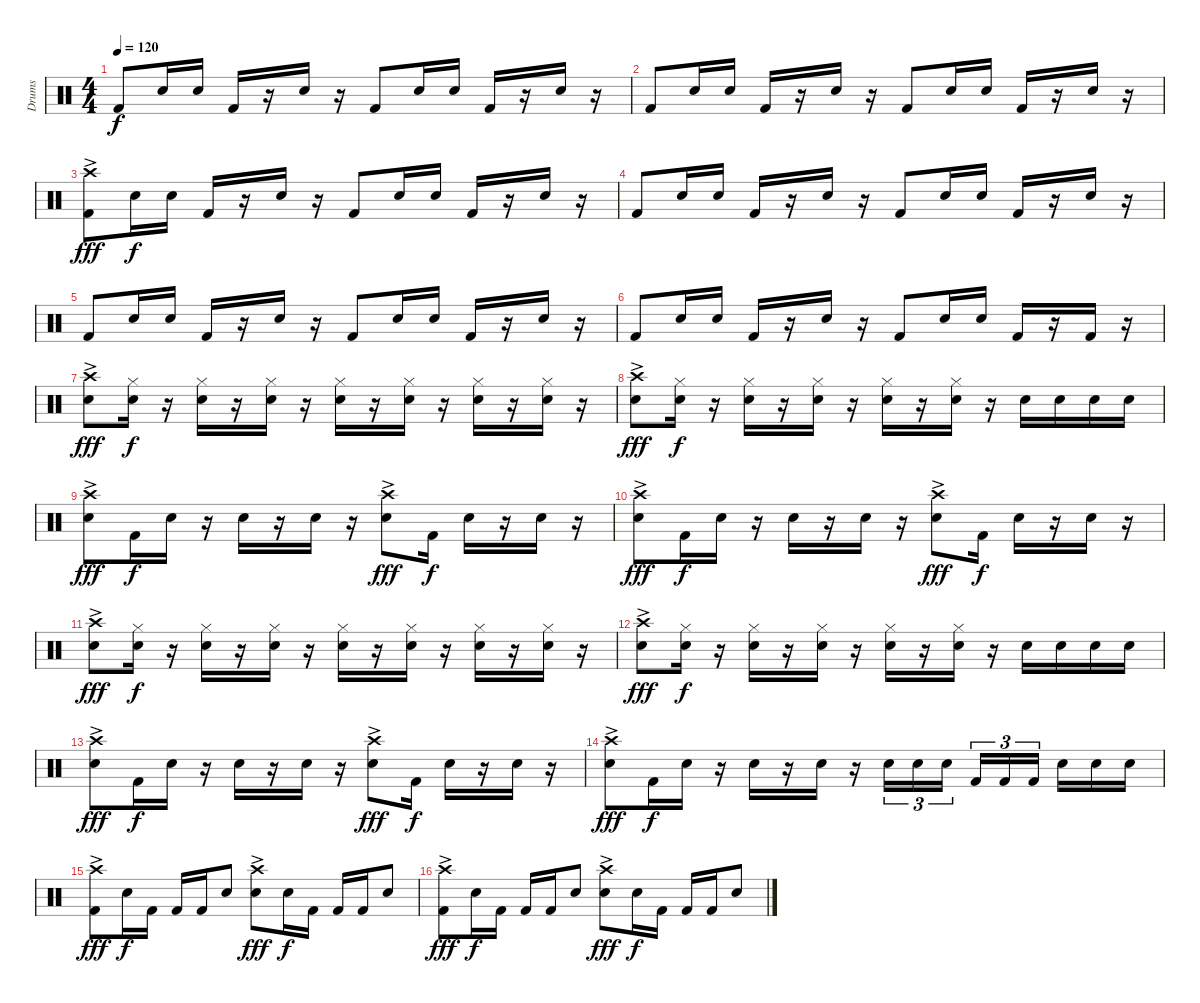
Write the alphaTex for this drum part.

\track ("Drums" "Drums") {instrument percussion}
\staff {score}
\articulation defaults
\ts (4 4)
\tempo 120
\clef neutral
\ks c "Kick (hit) 2".8{dy f} "Snare (hit) 2".16 "Snare (hit) 2".16 "Kick (hit) 2".16
r.16 "Snare (hit) 2".16 r.16 "Kick (hit) 2".8 "Snare (hit) 2".16 "Snare (hit) 2".16 "Kick (hit) 2".16 r.16 "Snare (hit) 2".16 r.16 |
"Kick (hit) 2".8 "Snare (hit) 2".16 "Snare (hit) 2".16 "Kick (hit) 2".16 r.16 "Snare (hit) 2".16 r.16 "Kick (hit) 2".8 "Snare (hit) 2".16 "Snare (hit) 2".16 "Kick (hit) 2".16 r.16 "Snare (hit) 2".16 r.16 |
("Crash high (hit)"{ac} "Kick (hit) 2").8{dy fff} "Snare (hit) 2".16{dy f} "Snare (hit) 2".16 "Kick (hit) 2".16 r.16 "Snare (hit) 2".16 r.16 "Kick (hit) 2".8 "Snare (hit) 2".16 "Snare (hit) 2".16 "Kick (hit) 2".16 r.16 "Snare (hit) 2".16 r.16 |
"Kick (hit) 2".8 "Snare (hit) 2".16 "Snare (hit) 2".16 "Kick (hit) 2".16 r.16 "Snare (hit) 2".16 r.16 "Kick (hit) 2".8 "Snare (hit) 2".16 "Snare (hit) 2".16 "Kick (hit) 2".16 r.16 "Snare (hit) 2".16 r.16 |
"Kick (hit) 2".8 "Snare (hit) 2".16 "Snare (hit) 2".16 "Kick (hit) 2".16 r.16 "Snare (hit) 2".16 r.16 "Kick (hit) 2".8 "Snare (hit) 2".16 "Snare (hit) 2".16 "Kick (hit) 2".16 r.16 "Snare (hit) 2".16 r.16 |
"Kick (hit) 2".8 "Snare (hit) 2".16 "Snare (hit) 2".16 "Kick (hit) 2".16 r.16 "Snare (hit) 2".16 r.16 "Kick (hit) 2".8 "Snare (hit) 2".16 "Snare (hit) 2".16 "Kick (hit) 2".16 r.16 "Kick (hit) 2".16 r.16 |
("Crash high (hit)"{ac} "Snare (hit) 2").8{dy fff} ("Hi-Hat (closed)" "Snare (hit) 2").16{dy f} r.16 ("Hi-Hat (closed)" "Snare (hit) 2").16 r.16 ("Hi-Hat (closed)" "Snare (hit) 2").16 r.16 ("Hi-Hat (closed)" "Snare (hit) 2").16 r.16 ("Hi-Hat (closed)" "Snare (hit) 2").16 r.16 ("Hi-Hat (closed)" "Snare (hit) 2").16 r.16 ("Hi-Hat (closed)" "Snare (hit) 2").16 r.16 |
("Crash high (hit)"{ac} "Snare (hit) 2").8{dy fff} ("Hi-Hat (closed)" "Snare (hit) 2").16{dy f} r.16 ("Hi-Hat (closed)" "Snare (hit) 2").16 r.16 ("Hi-Hat (closed)" "Snare (hit) 2").16 r.16 ("Hi-Hat (closed)" "Snare (hit) 2").16 r.16 ("Hi-Hat (closed)" "Snare (hit) 2").16 r.16 "Snare (hit) 2".16 "Snare (hit) 2".16 "Snare (hit) 2".16 "Snare (hit) 2".16 |
("Crash high (hit)"{ac} "Snare (hit) 2").8{dy fff} "Kick (hit) 2".16{dy f} "Snare (hit) 2".16 r.16 "Snare (hit) 2".16 r.16 "Snare (hit) 2".16 r.16 ("Crash high (hit)"{ac} "Snare (hit) 2").8{dy fff} "Kick (hit) 2".16{dy f} "Snare (hit) 2".16 r.16 "Snare (hit) 2".16 r.16 |
("Crash high (hit)"{ac} "Snare (hit) 2").8{dy fff} "Kick (hit) 2".16{dy f} "Snare (hit) 2".16 r.16 "Snare (hit) 2".16 r.16 "Snare (hit) 2".16 r.16 ("Crash high (hit)"{ac} "Snare (hit) 2").8{dy fff} "Kick (hit) 2".16{dy f} "Snare (hit) 2".16 r.16 "Snare (hit) 2".16 r.16 |
("Crash high (hit)"{ac} "Snare (hit) 2").8{dy fff} ("Hi-Hat (closed)" "Snare (hit) 2").16{dy f} r.16 ("Hi-Hat (closed)" "Snare (hit) 2").16 r.16 ("Hi-Hat (closed)" "Snare (hit) 2").16 r.16 ("Hi-Hat (closed)" "Snare (hit) 2").16 r.16 ("Hi-Hat (closed)" "Snare (hit) 2").16 r.16 ("Hi-Hat (closed)" "Snare (hit) 2").16 r.16 ("Hi-Hat (closed)" "Snare (hit) 2").16 r.16 |
("Crash high (hit)"{ac} "Snare (hit) 2").8{dy fff} ("Hi-Hat (closed)" "Snare (hit) 2").16{dy f} r.16 ("Hi-Hat (closed)" "Snare (hit) 2").16 r.16 ("Hi-Hat (closed)" "Snare (hit) 2").16 r.16 ("Hi-Hat (closed)" "Snare (hit) 2").16 r.16 ("Hi-Hat (closed)" "Snare (hit) 2").16 r.16 "Snare (hit) 2".16 "Snare (hit) 2".16 "Snare (hit) 2".16 "Snare (hit) 2".16 |
("Crash high (hit)"{ac} "Snare (hit) 2").8{dy fff} "Kick (hit) 2".16{dy f} "Snare (hit) 2".16 r.16 "Snare (hit) 2".16 r.16 "Snare (hit) 2".16 r.16 ("Crash high (hit)"{ac} "Snare (hit) 2").8{dy fff} "Kick (hit) 2".16{dy f} "Snare (hit) 2".16 r.16 "Snare (hit) 2".16 r.16 |
("Crash high (hit)"{ac} "Snare (hit) 2").8{dy fff} "Kick (hit) 2".16{dy f} "Snare (hit) 2".16 r.16 "Snare (hit) 2".16 r.16 "Snare (hit) 2".16 r.16 "Snare (hit) 2".16{tu (3 2)} "Snare (hit) 2".16{tu (3 2)} "Snare (hit) 2".16{tu (3 2)} "Kick (hit) 2".16{tu (3 2)} "Kick (hit) 2".16{tu (3 2)} "Kick (hit) 2".16{tu (3 2)} "Snare (hit) 2".16 "Snare (hit) 2".16 "Snare (hit) 2".16 |
("Crash high (hit)"{ac} "Kick (hit) 2").8{dy fff} "Snare (hit) 2".16{dy f} "Kick (hit) 2".16 "Kick (hit) 2".16 "Kick (hit) 2".16 "Snare (hit) 2".8 ("Crash high (hit)"{ac} "Snare (hit) 2").8{dy fff} "Snare (hit) 2".16{dy f} "Kick (hit) 2".16 "Kick (hit) 2".16 "Kick (hit) 2".16 "Snare (hit) 2".8 |
("Crash high (hit)"{ac} "Kick (hit) 2").8{dy fff} "Snare (hit) 2".16{dy f} "Kick (hit) 2".16 "Kick (hit) 2".16 "Kick (hit) 2".16 "Snare (hit) 2".8 ("Crash high (hit)"{ac} "Snare (hit) 2").8{dy fff} "Snare (hit) 2".16{dy f} "Kick (hit) 2".16 "Kick (hit) 2".16 "Kick (hit) 2".16 "Snare (hit) 2".8
